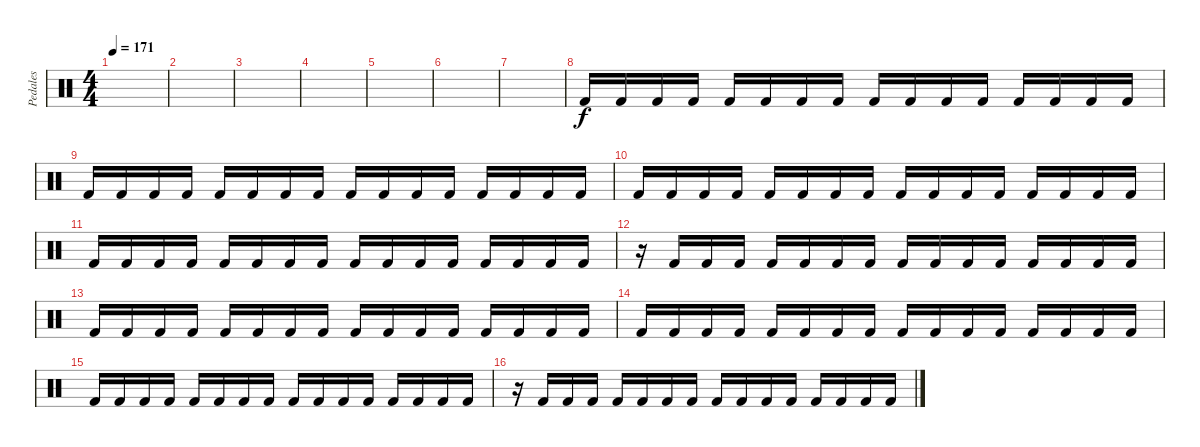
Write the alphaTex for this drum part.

\track ("Pedales" "Pedales") {instrument percussion}
\staff {score}
\articulation defaults
\ts (4 4)
\tempo 171
\clef neutral
\ks c
|
|
|
|
|
|
|
"Kick (hit) 2".16 "Kick (hit) 2".16 "Kick (hit) 2".16 "Kick (hit) 2".16 "Kick (hit) 2".16 "Kick (hit) 2".16 "Kick (hit) 2".16 "Kick (hit) 2".16 "Kick (hit) 2".16 "Kick (hit) 2".16 "Kick (hit) 2".16 "Kick (hit) 2".16 "Kick (hit) 2".16 "Kick (hit) 2".16 "Kick (hit) 2".16 "Kick (hit) 2".16 |
"Kick (hit) 2".16 "Kick (hit) 2".16 "Kick (hit) 2".16 "Kick (hit) 2".16 "Kick (hit) 2".16 "Kick (hit) 2".16 "Kick (hit) 2".16 "Kick (hit) 2".16 "Kick (hit) 2".16 "Kick (hit) 2".16 "Kick (hit) 2".16 "Kick (hit) 2".16 "Kick (hit) 2".16 "Kick (hit) 2".16 "Kick (hit) 2".16 "Kick (hit) 2".16 |
"Kick (hit) 2".16 "Kick (hit) 2".16 "Kick (hit) 2".16 "Kick (hit) 2".16 "Kick (hit) 2".16 "Kick (hit) 2".16 "Kick (hit) 2".16 "Kick (hit) 2".16 "Kick (hit) 2".16 "Kick (hit) 2".16 "Kick (hit) 2".16 "Kick (hit) 2".16 "Kick (hit) 2".16 "Kick (hit) 2".16 "Kick (hit) 2".16 "Kick (hit) 2".16 |
"Kick (hit) 2".16 "Kick (hit) 2".16 "Kick (hit) 2".16 "Kick (hit) 2".16 "Kick (hit) 2".16 "Kick (hit) 2".16 "Kick (hit) 2".16 "Kick (hit) 2".16 "Kick (hit) 2".16 "Kick (hit) 2".16 "Kick (hit) 2".16 "Kick (hit) 2".16 "Kick (hit) 2".16 "Kick (hit) 2".16 "Kick (hit) 2".16 "Kick (hit) 2".16 |
r.16 "Kick (hit) 2".16 "Kick (hit) 2".16 "Kick (hit) 2".16 "Kick (hit) 2".16 "Kick (hit) 2".16 "Kick (hit) 2".16 "Kick (hit) 2".16 "Kick (hit) 2".16 "Kick (hit) 2".16 "Kick (hit) 2".16 "Kick (hit) 2".16 "Kick (hit) 2".16 "Kick (hit) 2".16 "Kick (hit) 2".16 "Kick (hit) 2".16 |
"Kick (hit) 2".16 "Kick (hit) 2".16 "Kick (hit) 2".16 "Kick (hit) 2".16 "Kick (hit) 2".16 "Kick (hit) 2".16 "Kick (hit) 2".16 "Kick (hit) 2".16 "Kick (hit) 2".16 "Kick (hit) 2".16 "Kick (hit) 2".16 "Kick (hit) 2".16 "Kick (hit) 2".16 "Kick (hit) 2".16 "Kick (hit) 2".16 "Kick (hit) 2".16 |
"Kick (hit) 2".16 "Kick (hit) 2".16 "Kick (hit) 2".16 "Kick (hit) 2".16 "Kick (hit) 2".16 "Kick (hit) 2".16 "Kick (hit) 2".16 "Kick (hit) 2".16 "Kick (hit) 2".16 "Kick (hit) 2".16 "Kick (hit) 2".16 "Kick (hit) 2".16 "Kick (hit) 2".16 "Kick (hit) 2".16 "Kick (hit) 2".16 "Kick (hit) 2".16 |
"Kick (hit) 2".16 "Kick (hit) 2".16 "Kick (hit) 2".16 "Kick (hit) 2".16 "Kick (hit) 2".16 "Kick (hit) 2".16 "Kick (hit) 2".16 "Kick (hit) 2".16 "Kick (hit) 2".16 "Kick (hit) 2".16 "Kick (hit) 2".16 "Kick (hit) 2".16 "Kick (hit) 2".16 "Kick (hit) 2".16 "Kick (hit) 2".16 "Kick (hit) 2".16 |
r.16 "Kick (hit) 2".16 "Kick (hit) 2".16 "Kick (hit) 2".16 "Kick (hit) 2".16 "Kick (hit) 2".16 "Kick (hit) 2".16 "Kick (hit) 2".16 "Kick (hit) 2".16 "Kick (hit) 2".16 "Kick (hit) 2".16 "Kick (hit) 2".16 "Kick (hit) 2".16 "Kick (hit) 2".16 "Kick (hit) 2".16 "Kick (hit) 2".16
